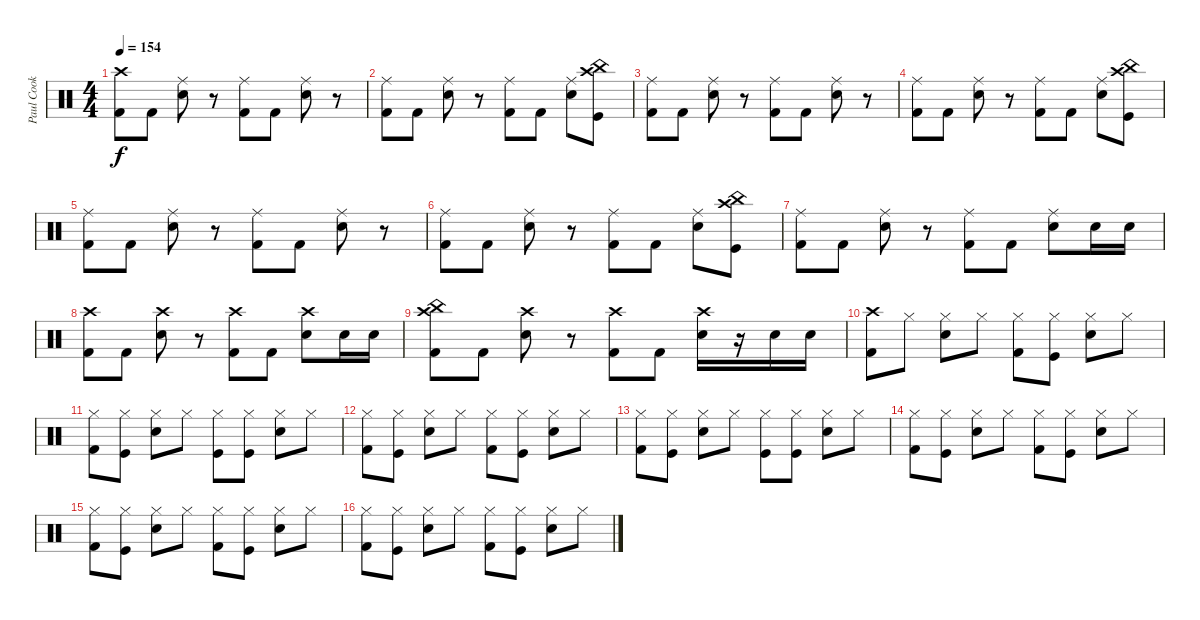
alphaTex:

\track ("Paul Cook" "Paul Cook") {instrument percussion}
\staff {score}
\articulation defaults
\ts (4 4)
\tempo 154
\clef neutral
\ks c
("Crash high (hit)" "Kick (hit) 2").8{dy f} "Kick (hit) 2".8 ("Ride (middle)" "Electric Snare (hit)").8 r.8 ("Ride (middle)" "Kick (hit) 2").8 "Kick (hit) 2".8 ("Ride (middle)" "Electric Snare (hit)").8 r.8 |
("Ride (middle)" "Kick (hit) 2").8 "Kick (hit) 2".8 ("Ride (middle)" "Electric Snare (hit)").8 r.8 ("Ride (middle)" "Kick (hit) 2").8 "Kick (hit) 2".8 ("Ride (middle)" "Electric Snare (hit)").8 ("Kick (hit)" "Crash high (hit)" "China (hit)").8 |
("Ride (middle)" "Kick (hit) 2").8 "Kick (hit) 2".8 ("Ride (middle)" "Electric Snare (hit)").8 r.8 ("Ride (middle)" "Kick (hit) 2").8 "Kick (hit) 2".8 ("Ride (middle)" "Electric Snare (hit)").8 r.8 |
("Ride (middle)" "Kick (hit) 2").8 "Kick (hit) 2".8 ("Ride (middle)" "Electric Snare (hit)").8 r.8 ("Ride (middle)" "Kick (hit) 2").8 "Kick (hit) 2".8 ("Ride (middle)" "Electric Snare (hit)").8 ("Kick (hit)" "Crash high (hit)" "China (hit)").8 |
("Ride (middle)" "Kick (hit) 2").8 "Kick (hit) 2".8 ("Ride (middle)" "Electric Snare (hit)").8 r.8 ("Ride (middle)" "Kick (hit) 2").8 "Kick (hit) 2".8 ("Ride (middle)" "Electric Snare (hit)").8 r.8 |
("Ride (middle)" "Kick (hit) 2").8 "Kick (hit) 2".8 ("Ride (middle)" "Electric Snare (hit)").8 r.8 ("Ride (middle)" "Kick (hit) 2").8 "Kick (hit) 2".8 ("Ride (middle)" "Electric Snare (hit)").8 ("Kick (hit)" "Crash high (hit)" "China (hit)").8 |
("Ride (middle)" "Kick (hit) 2").8 "Kick (hit) 2".8 ("Ride (middle)" "Electric Snare (hit)").8 r.8 ("Ride (middle)" "Kick (hit) 2").8 "Kick (hit) 2".8 ("Ride (middle)" "Electric Snare (hit)").8 "Snare (hit) 2".16 "Snare (hit) 2".16 |
("Crash high (hit)" "Kick (hit) 2").8 "Kick (hit) 2".8 ("Crash high (hit)" "Electric Snare (hit)").8 r.8 ("Crash high (hit)" "Kick (hit) 2").8 "Kick (hit) 2".8 ("Crash high (hit)" "Electric Snare (hit)").8 "Snare (hit) 2".16 "Snare (hit) 2".16 |
("Crash high (hit)" "China (hit)" "Kick (hit) 2").8 "Kick (hit) 2".8 ("Crash high (hit)" "Electric Snare (hit)").8 r.8 ("Crash high (hit)" "Kick (hit) 2").8 "Kick (hit) 2".8 ("Crash high (hit)" "Electric Snare (hit)").16 r.16 "Snare (hit) 2".16 "Snare (hit) 2".16 |
("Crash high (hit)" "Kick (hit) 2").8 "Hi-Hat (closed)".8 ("Hi-Hat (closed)" "Snare (hit) 2").8 "Hi-Hat (closed)".8 ("Hi-Hat (closed)" "Kick (hit) 2").8 ("Kick (hit)" "Hi-Hat (closed)").8 ("Hi-Hat (closed)" "Snare (hit) 2").8 "Hi-Hat (closed)".8 |
("Hi-Hat (closed)" "Kick (hit) 2").8 ("Kick (hit)" "Hi-Hat (closed)").8 ("Hi-Hat (closed)" "Snare (hit) 2").8 "Hi-Hat (closed)".8 ("Kick (hit)" "Hi-Hat (closed)").8 ("Kick (hit)" "Hi-Hat (closed)").8 ("Snare (hit) 2" "Hi-Hat (closed)").8 "Hi-Hat (closed)".8 |
("Hi-Hat (closed)" "Kick (hit) 2").8 ("Kick (hit)" "Hi-Hat (closed)").8 ("Hi-Hat (closed)" "Snare (hit) 2").8 "Hi-Hat (closed)".8 ("Hi-Hat (closed)" "Kick (hit) 2").8 ("Kick (hit)" "Hi-Hat (closed)").8 ("Hi-Hat (closed)" "Snare (hit) 2").8 "Hi-Hat (closed)".8 |
("Hi-Hat (closed)" "Kick (hit) 2").8 ("Kick (hit)" "Hi-Hat (closed)").8 ("Hi-Hat (closed)" "Snare (hit) 2").8 "Hi-Hat (closed)".8 ("Kick (hit)" "Hi-Hat (closed)").8 ("Kick (hit)" "Hi-Hat (closed)").8 ("Snare (hit) 2" "Hi-Hat (closed)").8 "Hi-Hat (closed)".8 |
("Hi-Hat (closed)" "Kick (hit) 2").8 ("Kick (hit)" "Hi-Hat (closed)").8 ("Hi-Hat (closed)" "Snare (hit) 2").8 "Hi-Hat (closed)".8 ("Hi-Hat (closed)" "Kick (hit) 2").8 ("Kick (hit)" "Hi-Hat (closed)").8 ("Hi-Hat (closed)" "Snare (hit) 2").8 "Hi-Hat (closed)".8 |
("Hi-Hat (closed)" "Kick (hit) 2").8 ("Kick (hit)" "Hi-Hat (closed)").8 ("Hi-Hat (closed)" "Snare (hit) 2").8 "Hi-Hat (closed)".8 ("Hi-Hat (closed)" "Kick (hit) 2").8 ("Kick (hit)" "Hi-Hat (closed)").8 ("Hi-Hat (closed)" "Snare (hit) 2").8 "Hi-Hat (closed)".8 |
("Hi-Hat (closed)" "Kick (hit) 2").8 ("Kick (hit)" "Hi-Hat (closed)").8 ("Hi-Hat (closed)" "Snare (hit) 2").8 "Hi-Hat (closed)".8 ("Hi-Hat (closed)" "Kick (hit) 2").8 ("Kick (hit)" "Hi-Hat (closed)").8 ("Hi-Hat (closed)" "Snare (hit) 2").8 "Hi-Hat (closed)".8
